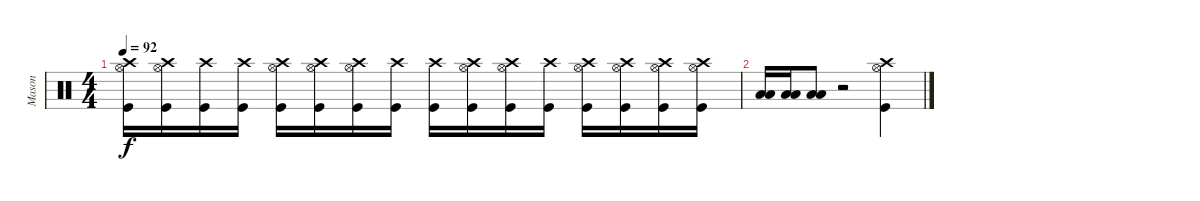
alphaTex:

\track ("Mason" "Mason") {instrument percussion}
\staff {score}
\articulation defaults
\ts (4 4)
\tempo 92
\clef neutral
\ks c
("Kick (hit)" "Hi-Hat (open)" "Crash high (hit)").16{dy f} ("Kick (hit)" "Hi-Hat (open)" "Crash high (hit)").16 ("Kick (hit)" "Crash high (hit)").16 ("Kick (hit)" "Crash high (hit)").16 ("Kick (hit)" "Hi-Hat (open)" "Crash high (hit)").16 ("Kick (hit)" "Hi-Hat (open)" "Crash high (hit)").16 ("Kick (hit)" "Hi-Hat (open)" "Crash high (hit)").16 ("Kick (hit)" "Crash high (hit)").16 ("Kick (hit)" "Crash high (hit)").16 ("Kick (hit)" "Hi-Hat (open)" "Crash high (hit)").16 ("Kick (hit)" "Hi-Hat (open)" "Crash high (hit)").16 ("Kick (hit)" "Crash high (hit)").16 ("Kick (hit)" "Hi-Hat (open)" "Crash high (hit)").16 ("Kick (hit)" "Hi-Hat (open)" "Crash high (hit)").16 ("Kick (hit)" "Hi-Hat (open)" "Crash high (hit)").16 ("Kick (hit)" "Hi-Hat (open)" "Crash high (hit)").16 |
("Low Tom (hit)" "Low Tom (hit)").16 ("Low Floor Tom (hit)" "Low Floor Tom (hit)").16 ("Low Floor Tom (hit)" "Low Floor Tom (hit)").8 r.2 ("Kick (hit)" "Hi-Hat (open)" "Crash high (hit)").4
